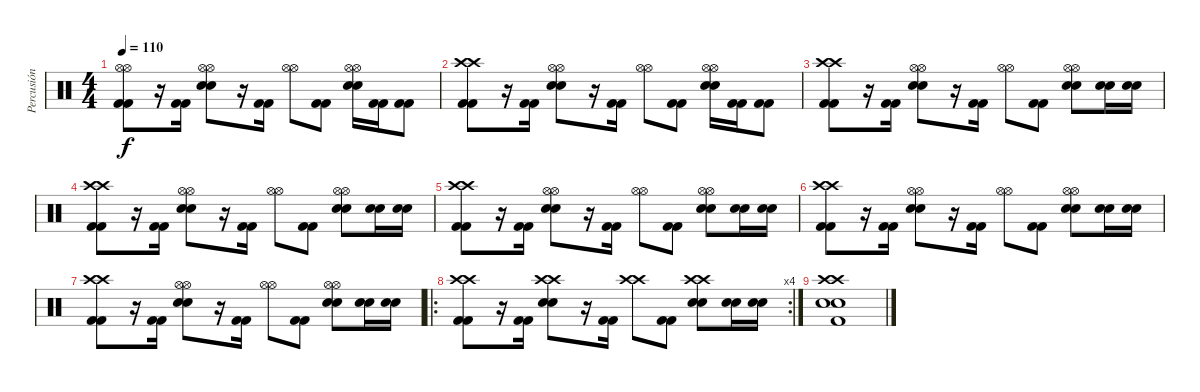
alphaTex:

\track ("Percusión" "Percusión") {instrument percussion}
\staff {score}
\articulation defaults
\ts (4 4)
\tempo 110
\clef neutral
\ks c
("Hi-Hat (open)" "Hi-Hat (open)" "Kick (hit) 2" "Kick (hit) 2").8{dy f} r.16 ("Kick (hit) 2" "Kick (hit) 2").16 ("Hi-Hat (open)" "Hi-Hat (open)" "Electric Snare (hit)" "Electric Snare (hit)").8 r.16 ("Kick (hit) 2" "Kick (hit) 2").16 ("Hi-Hat (open)" "Hi-Hat (open)").8 ("Kick (hit) 2" "Kick (hit) 2").8 ("Hi-Hat (open)" "Hi-Hat (open)" "Electric Snare (hit)" "Electric Snare (hit)").16 ("Kick (hit) 2" "Kick (hit) 2").16 ("Kick (hit) 2" "Kick (hit) 2").8 |
("Crash high (hit)" "Crash high (hit)" "Kick (hit) 2" "Kick (hit) 2").8 r.16 ("Kick (hit) 2" "Kick (hit) 2").16 ("Hi-Hat (open)" "Hi-Hat (open)" "Electric Snare (hit)" "Electric Snare (hit)").8 r.16 ("Kick (hit) 2" "Kick (hit) 2").16 ("Hi-Hat (open)" "Hi-Hat (open)").8 ("Kick (hit) 2" "Kick (hit) 2").8 ("Hi-Hat (open)" "Hi-Hat (open)" "Electric Snare (hit)" "Electric Snare (hit)").16 ("Kick (hit) 2" "Kick (hit) 2").16 ("Kick (hit) 2" "Kick (hit) 2").8 |
("Crash high (hit)" "Crash high (hit)" "Kick (hit) 2" "Kick (hit) 2").8 r.16 ("Kick (hit) 2" "Kick (hit) 2").16 ("Hi-Hat (open)" "Hi-Hat (open)" "Electric Snare (hit)" "Electric Snare (hit)").8 r.16 ("Kick (hit) 2" "Kick (hit) 2").16 ("Hi-Hat (open)" "Hi-Hat (open)").8 ("Kick (hit) 2" "Kick (hit) 2").8 ("Hi-Hat (open)" "Hi-Hat (open)" "Electric Snare (hit)" "Electric Snare (hit)").8 ("Electric Snare (hit)" "Electric Snare (hit)").16 ("Electric Snare (hit)" "Electric Snare (hit)").16 |
("Crash high (hit)" "Crash high (hit)" "Kick (hit) 2" "Kick (hit) 2").8 r.16 ("Kick (hit) 2" "Kick (hit) 2").16 ("Hi-Hat (open)" "Hi-Hat (open)" "Electric Snare (hit)" "Electric Snare (hit)").8 r.16 ("Kick (hit) 2" "Kick (hit) 2").16 ("Hi-Hat (open)" "Hi-Hat (open)").8 ("Kick (hit) 2" "Kick (hit) 2").8 ("Hi-Hat (open)" "Hi-Hat (open)" "Electric Snare (hit)" "Electric Snare (hit)").8 ("Electric Snare (hit)" "Electric Snare (hit)").16 ("Electric Snare (hit)" "Electric Snare (hit)").16 |
("Crash high (hit)" "Crash high (hit)" "Kick (hit) 2" "Kick (hit) 2").8 r.16 ("Kick (hit) 2" "Kick (hit) 2").16 ("Hi-Hat (open)" "Hi-Hat (open)" "Electric Snare (hit)" "Electric Snare (hit)").8 r.16 ("Kick (hit) 2" "Kick (hit) 2").16 ("Hi-Hat (open)" "Hi-Hat (open)").8 ("Kick (hit) 2" "Kick (hit) 2").8 ("Hi-Hat (open)" "Hi-Hat (open)" "Electric Snare (hit)" "Electric Snare (hit)").8 ("Electric Snare (hit)" "Electric Snare (hit)").16 ("Electric Snare (hit)" "Electric Snare (hit)").16 |
("Crash high (hit)" "Crash high (hit)" "Kick (hit) 2" "Kick (hit) 2").8 r.16 ("Kick (hit) 2" "Kick (hit) 2").16 ("Hi-Hat (open)" "Hi-Hat (open)" "Electric Snare (hit)" "Electric Snare (hit)").8 r.16 ("Kick (hit) 2" "Kick (hit) 2").16 ("Hi-Hat (open)" "Hi-Hat (open)").8 ("Kick (hit) 2" "Kick (hit) 2").8 ("Hi-Hat (open)" "Hi-Hat (open)" "Electric Snare (hit)" "Electric Snare (hit)").8 ("Electric Snare (hit)" "Electric Snare (hit)").16 ("Electric Snare (hit)" "Electric Snare (hit)").16 |
("Crash high (hit)" "Crash high (hit)" "Kick (hit) 2" "Kick (hit) 2").8 r.16 ("Kick (hit) 2" "Kick (hit) 2").16 ("Hi-Hat (open)" "Hi-Hat (open)" "Electric Snare (hit)" "Electric Snare (hit)").8 r.16 ("Kick (hit) 2" "Kick (hit) 2").16 ("Hi-Hat (open)" "Hi-Hat (open)").8 ("Kick (hit) 2" "Kick (hit) 2").8 ("Hi-Hat (open)" "Hi-Hat (open)" "Electric Snare (hit)" "Electric Snare (hit)").8 ("Electric Snare (hit)" "Electric Snare (hit)").16 ("Electric Snare (hit)" "Electric Snare (hit)").16 |
\ro
\rc 4
("Crash high (hit)" "Crash high (hit)" "Kick (hit) 2" "Kick (hit) 2").8 r.16 ("Kick (hit) 2" "Kick (hit) 2").16 ("Crash high (hit)" "Crash high (hit)" "Electric Snare (hit)" "Electric Snare (hit)").8 r.16 ("Kick (hit) 2" "Kick (hit) 2").16 ("Crash high (hit)" "Crash high (hit)").8 ("Kick (hit) 2" "Kick (hit) 2").8 ("Crash high (hit)" "Crash high (hit)" "Electric Snare (hit)" "Electric Snare (hit)").8 ("Electric Snare (hit)" "Electric Snare (hit)").16 ("Electric Snare (hit)" "Electric Snare (hit)").16 |
("Crash high (hit)" "Crash high (hit)" "Electric Snare (hit)" "Electric Snare (hit)" "Kick (hit) 2").1
